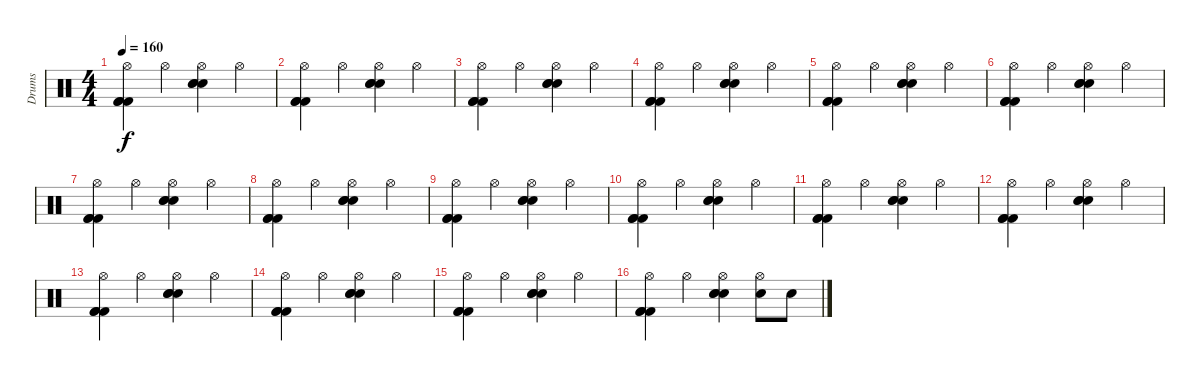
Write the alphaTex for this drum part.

\track ("Drums" "Drums") {instrument percussion}
\staff {score}
\articulation defaults
\ts (4 4)
\tempo 160
\clef neutral
\ks c
("Hi-Hat (open)" "Kick (hit) 2" "Kick (hit) 2" "Kick (hit) 2").4{dy f} "Hi-Hat (open)".4 ("Hi-Hat (open)" "Electric Snare (hit)" "Electric Snare (hit)" "Electric Snare (hit)").4 "Hi-Hat (open)".4 |
("Hi-Hat (open)" "Kick (hit) 2" "Kick (hit) 2" "Kick (hit) 2").4 "Hi-Hat (open)".4 ("Hi-Hat (open)" "Electric Snare (hit)" "Electric Snare (hit)" "Electric Snare (hit)").4 "Hi-Hat (open)".4 |
("Hi-Hat (open)" "Kick (hit) 2" "Kick (hit) 2" "Kick (hit) 2").4 "Hi-Hat (open)".4 ("Hi-Hat (open)" "Electric Snare (hit)" "Electric Snare (hit)" "Electric Snare (hit)").4 "Hi-Hat (open)".4 |
("Hi-Hat (open)" "Kick (hit) 2" "Kick (hit) 2" "Kick (hit) 2").4 "Hi-Hat (open)".4 ("Hi-Hat (open)" "Electric Snare (hit)" "Electric Snare (hit)" "Electric Snare (hit)").4 "Hi-Hat (open)".4 |
("Hi-Hat (open)" "Kick (hit) 2" "Kick (hit) 2" "Kick (hit) 2").4 "Hi-Hat (open)".4 ("Hi-Hat (open)" "Electric Snare (hit)" "Electric Snare (hit)" "Electric Snare (hit)").4 "Hi-Hat (open)".4 |
("Hi-Hat (open)" "Kick (hit) 2" "Kick (hit) 2" "Kick (hit) 2").4 "Hi-Hat (open)".4 ("Hi-Hat (open)" "Electric Snare (hit)" "Electric Snare (hit)" "Electric Snare (hit)").4 "Hi-Hat (open)".4 |
("Hi-Hat (open)" "Kick (hit) 2" "Kick (hit) 2" "Kick (hit) 2").4 "Hi-Hat (open)".4 ("Hi-Hat (open)" "Electric Snare (hit)" "Electric Snare (hit)" "Electric Snare (hit)").4 "Hi-Hat (open)".4 |
("Hi-Hat (open)" "Kick (hit) 2" "Kick (hit) 2" "Kick (hit) 2").4 "Hi-Hat (open)".4 ("Hi-Hat (open)" "Electric Snare (hit)" "Electric Snare (hit)" "Electric Snare (hit)").4 "Hi-Hat (open)".4 |
("Hi-Hat (open)" "Kick (hit) 2" "Kick (hit) 2" "Kick (hit) 2").4 "Hi-Hat (open)".4 ("Hi-Hat (open)" "Electric Snare (hit)" "Electric Snare (hit)" "Electric Snare (hit)").4 "Hi-Hat (open)".4 |
("Hi-Hat (open)" "Kick (hit) 2" "Kick (hit) 2" "Kick (hit) 2").4 "Hi-Hat (open)".4 ("Hi-Hat (open)" "Electric Snare (hit)" "Electric Snare (hit)" "Electric Snare (hit)").4 "Hi-Hat (open)".4 |
("Hi-Hat (open)" "Kick (hit) 2" "Kick (hit) 2" "Kick (hit) 2").4 "Hi-Hat (open)".4 ("Hi-Hat (open)" "Electric Snare (hit)" "Electric Snare (hit)" "Electric Snare (hit)").4 "Hi-Hat (open)".4 |
("Hi-Hat (open)" "Kick (hit) 2" "Kick (hit) 2" "Kick (hit) 2").4 "Hi-Hat (open)".4 ("Hi-Hat (open)" "Electric Snare (hit)" "Electric Snare (hit)" "Electric Snare (hit)").4 "Hi-Hat (open)".4 |
("Hi-Hat (open)" "Kick (hit) 2" "Kick (hit) 2" "Kick (hit) 2").4 "Hi-Hat (open)".4 ("Hi-Hat (open)" "Electric Snare (hit)" "Electric Snare (hit)" "Electric Snare (hit)").4 "Hi-Hat (open)".4 |
("Hi-Hat (open)" "Kick (hit) 2" "Kick (hit) 2" "Kick (hit) 2").4 "Hi-Hat (open)".4 ("Hi-Hat (open)" "Electric Snare (hit)" "Electric Snare (hit)" "Electric Snare (hit)").4 "Hi-Hat (open)".4 |
("Hi-Hat (open)" "Kick (hit) 2" "Kick (hit) 2" "Kick (hit) 2").4 "Hi-Hat (open)".4 ("Hi-Hat (open)" "Electric Snare (hit)" "Electric Snare (hit)" "Electric Snare (hit)").4 "Hi-Hat (open)".4 |
("Hi-Hat (open)" "Kick (hit) 2" "Kick (hit) 2" "Kick (hit) 2").4 "Hi-Hat (open)".4 ("Hi-Hat (open)" "Electric Snare (hit)" "Electric Snare (hit)" "Electric Snare (hit)").4 ("Hi-Hat (open)" "Electric Snare (hit)").8 "Electric Snare (hit)".8
